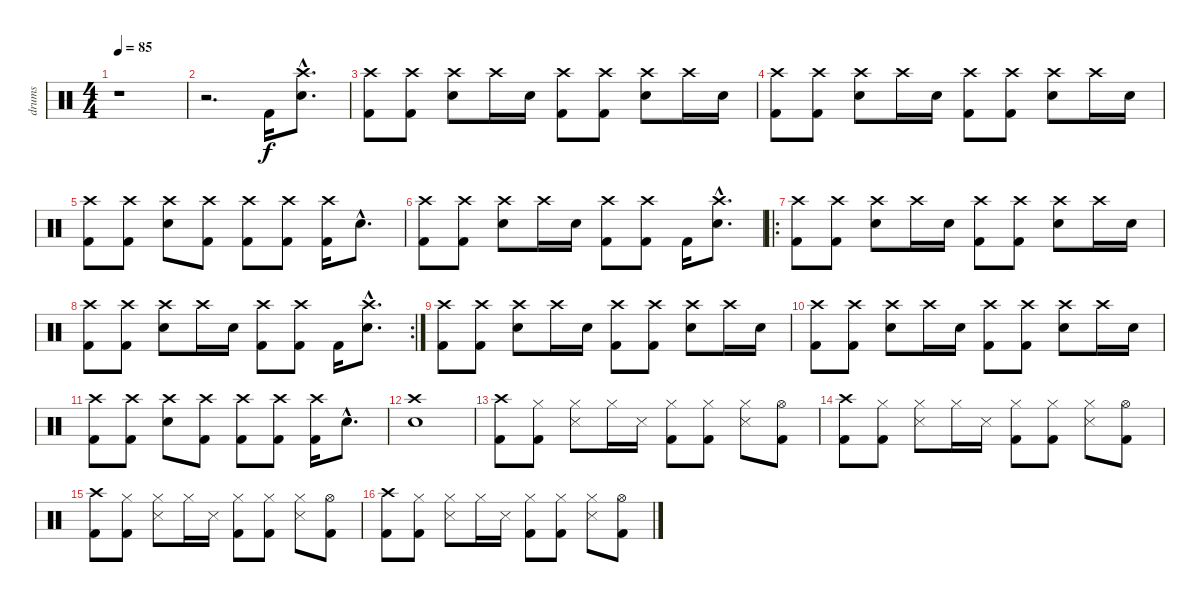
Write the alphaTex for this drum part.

\track ("drums" "drums") {instrument percussion}
\staff {score}
\articulation defaults
\ts (4 4)
\tempo 85
\clef neutral
\ks c
r.1{dy f} |
r.2{d} "Kick (hit) 2".16 ("Crash high (hit)"{hac} "Snare (hit) 2"{hac}).8{d} |
("Crash high (hit)" "Kick (hit) 2").8 ("Crash high (hit)" "Kick (hit) 2").8 ("Crash high (hit)" "Snare (hit) 2").8 "Crash high (hit)".16 "Snare (hit) 2".16 ("Crash high (hit)" "Kick (hit) 2").8 ("Crash high (hit)" "Kick (hit) 2").8 ("Crash high (hit)" "Snare (hit) 2").8 "Crash high (hit)".16 "Snare (hit) 2".16 |
("Crash high (hit)" "Kick (hit) 2").8 ("Crash high (hit)" "Kick (hit) 2").8 ("Crash high (hit)" "Snare (hit) 2").8 "Crash high (hit)".16 "Snare (hit) 2".16 ("Crash high (hit)" "Kick (hit) 2").8 ("Crash high (hit)" "Kick (hit) 2").8 ("Crash high (hit)" "Snare (hit) 2").8 "Crash high (hit)".16 "Snare (hit) 2".16 |
("Crash high (hit)" "Kick (hit) 2").8 ("Crash high (hit)" "Kick (hit) 2").8 ("Crash high (hit)" "Snare (hit) 2").8 ("Crash high (hit)" "Kick (hit) 2").8 ("Crash high (hit)" "Kick (hit) 2").8 ("Crash high (hit)" "Kick (hit) 2").8 ("Crash high (hit)" "Kick (hit) 2").16 "Snare (hit) 2"{hac}.8{d} |
("Crash high (hit)" "Kick (hit) 2").8 ("Crash high (hit)" "Kick (hit) 2").8 ("Crash high (hit)" "Snare (hit) 2").8 "Crash high (hit)".16 "Snare (hit) 2".16 ("Crash high (hit)" "Kick (hit) 2").8 ("Crash high (hit)" "Kick (hit) 2").8 "Kick (hit) 2".16 ("Crash high (hit)"{hac} "Snare (hit) 2"{hac}).8{d} |
\ro
("Crash high (hit)" "Kick (hit) 2").8 ("Crash high (hit)" "Kick (hit) 2").8 ("Crash high (hit)" "Snare (hit) 2").8 "Crash high (hit)".16 "Snare (hit) 2".16 ("Crash high (hit)" "Kick (hit) 2").8 ("Crash high (hit)" "Kick (hit) 2").8 ("Crash high (hit)" "Snare (hit) 2").8 "Crash high (hit)".16 "Snare (hit) 2".16 |
\rc 2
("Crash high (hit)" "Kick (hit) 2").8 ("Crash high (hit)" "Kick (hit) 2").8 ("Crash high (hit)" "Snare (hit) 2").8 "Crash high (hit)".16 "Snare (hit) 2".16 ("Crash high (hit)" "Kick (hit) 2").8 ("Crash high (hit)" "Kick (hit) 2").8 "Kick (hit) 2".16 ("Crash high (hit)"{hac} "Snare (hit) 2"{hac}).8{d} |
("Crash high (hit)" "Kick (hit) 2").8 ("Crash high (hit)" "Kick (hit) 2").8 ("Crash high (hit)" "Snare (hit) 2").8 "Crash high (hit)".16 "Snare (hit) 2".16 ("Crash high (hit)" "Kick (hit) 2").8 ("Crash high (hit)" "Kick (hit) 2").8 ("Crash high (hit)" "Snare (hit) 2").8 "Crash high (hit)".16 "Snare (hit) 2".16 |
("Crash high (hit)" "Kick (hit) 2").8 ("Crash high (hit)" "Kick (hit) 2").8 ("Crash high (hit)" "Snare (hit) 2").8 "Crash high (hit)".16 "Snare (hit) 2".16 ("Crash high (hit)" "Kick (hit) 2").8 ("Crash high (hit)" "Kick (hit) 2").8 ("Crash high (hit)" "Snare (hit) 2").8 "Crash high (hit)".16 "Snare (hit) 2".16 |
("Crash high (hit)" "Kick (hit) 2").8 ("Crash high (hit)" "Kick (hit) 2").8 ("Crash high (hit)" "Snare (hit) 2").8 ("Crash high (hit)" "Kick (hit) 2").8 ("Crash high (hit)" "Kick (hit) 2").8 ("Crash high (hit)" "Kick (hit) 2").8 ("Crash high (hit)" "Kick (hit) 2").16 "Snare (hit) 2"{hac}.8{d} |
("Crash high (hit)" "Snare (hit) 2").1 |
("Crash high (hit)" "Kick (hit) 2").8 ("Hi-Hat (closed)" "Kick (hit) 2").8 ("Hi-Hat (closed)" "Snare (side stick) 3").8 "Hi-Hat (closed)".16 "Snare (side stick) 3".16 ("Hi-Hat (closed)" "Kick (hit) 2").8 ("Hi-Hat (closed)" "Kick (hit) 2").8 ("Hi-Hat (closed)" "Snare (side stick) 3").8 ("Hi-Hat (open)" "Kick (hit) 2").8 |
("Crash high (hit)" "Kick (hit) 2").8 ("Hi-Hat (closed)" "Kick (hit) 2").8 ("Hi-Hat (closed)" "Snare (side stick) 3").8 "Hi-Hat (closed)".16 "Snare (side stick) 3".16 ("Hi-Hat (closed)" "Kick (hit) 2").8 ("Hi-Hat (closed)" "Kick (hit) 2").8 ("Hi-Hat (closed)" "Snare (side stick) 3").8 ("Hi-Hat (open)" "Kick (hit) 2").8 |
("Crash high (hit)" "Kick (hit) 2").8 ("Hi-Hat (closed)" "Kick (hit) 2").8 ("Hi-Hat (closed)" "Snare (side stick) 3").8 "Hi-Hat (closed)".16 "Snare (side stick) 3".16 ("Hi-Hat (closed)" "Kick (hit) 2").8 ("Hi-Hat (closed)" "Kick (hit) 2").8 ("Hi-Hat (closed)" "Snare (side stick) 3").8 ("Hi-Hat (open)" "Kick (hit) 2").8 |
("Crash high (hit)" "Kick (hit) 2").8 ("Hi-Hat (closed)" "Kick (hit) 2").8 ("Hi-Hat (closed)" "Snare (side stick) 3").8 "Hi-Hat (closed)".16 "Snare (side stick) 3".16 ("Hi-Hat (closed)" "Kick (hit) 2").8 ("Hi-Hat (closed)" "Kick (hit) 2").8 ("Hi-Hat (closed)" "Snare (side stick) 3").8 ("Hi-Hat (open)" "Kick (hit) 2").8
